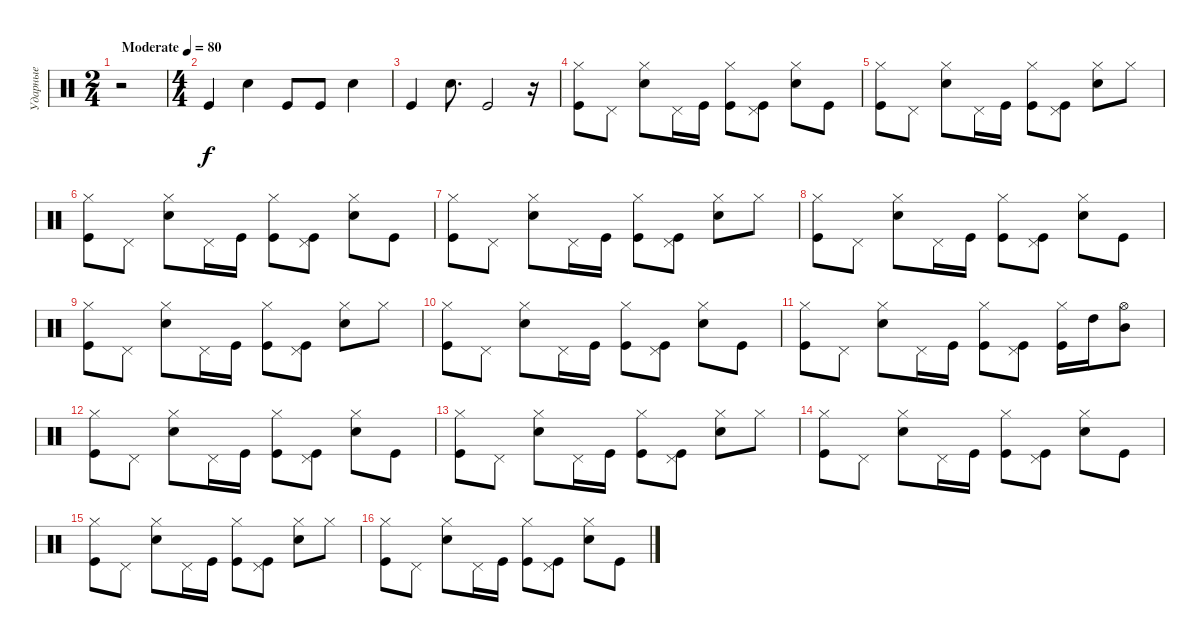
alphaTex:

\track ("Ударные" "Ударные") {instrument percussion}
\staff {score}
\articulation defaults
\ts (2 4)
\tempo (80 "Moderate")
\clef neutral
\ks c
r.2{dy f} |
\ts (4 4)
"Kick (hit)".4 "Snare (hit) 2".4 "Kick (hit)".8 "Kick (hit)".8 "Snare (hit) 2".4 |
"Kick (hit)".4 "Snare (hit) 2".8{d} "Kick (hit)".2 r.16 |
("Kick (hit)" "Hi-Hat (closed)").8 "Pedal Hi-Hat (hit)".8 ("Snare (hit) 2" "Hi-Hat (closed)").8 "Pedal Hi-Hat (hit)".16 "Kick (hit)".16 ("Kick (hit)" "Hi-Hat (closed)").8 ("Kick (hit)" "Pedal Hi-Hat (hit)").8 ("Snare (hit) 2" "Hi-Hat (closed)").8 "Kick (hit)".8 |
("Kick (hit)" "Hi-Hat (closed)").8 "Pedal Hi-Hat (hit)".8 ("Snare (hit) 2" "Hi-Hat (closed)").8 "Pedal Hi-Hat (hit)".16 "Kick (hit)".16 ("Kick (hit)" "Hi-Hat (closed)").8 ("Kick (hit)" "Pedal Hi-Hat (hit)").8 ("Snare (hit) 2" "Hi-Hat (closed)").8 "Hi-Hat (closed)".8 |
("Kick (hit)" "Hi-Hat (closed)").8 "Pedal Hi-Hat (hit)".8 ("Snare (hit) 2" "Hi-Hat (closed)").8 "Pedal Hi-Hat (hit)".16 "Kick (hit)".16 ("Kick (hit)" "Hi-Hat (closed)").8 ("Kick (hit)" "Pedal Hi-Hat (hit)").8 ("Snare (hit) 2" "Hi-Hat (closed)").8 "Kick (hit)".8 |
("Kick (hit)" "Hi-Hat (closed)").8 "Pedal Hi-Hat (hit)".8 ("Snare (hit) 2" "Hi-Hat (closed)").8 "Pedal Hi-Hat (hit)".16 "Kick (hit)".16 ("Kick (hit)" "Hi-Hat (closed)").8 ("Kick (hit)" "Pedal Hi-Hat (hit)").8 ("Snare (hit) 2" "Hi-Hat (closed)").8 "Hi-Hat (closed)".8 |
("Kick (hit)" "Hi-Hat (closed)").8 "Pedal Hi-Hat (hit)".8 ("Snare (hit) 2" "Hi-Hat (closed)").8 "Pedal Hi-Hat (hit)".16 "Kick (hit)".16 ("Kick (hit)" "Hi-Hat (closed)").8 ("Kick (hit)" "Pedal Hi-Hat (hit)").8 ("Snare (hit) 2" "Hi-Hat (closed)").8 "Kick (hit)".8 |
("Kick (hit)" "Hi-Hat (closed)").8 "Pedal Hi-Hat (hit)".8 ("Snare (hit) 2" "Hi-Hat (closed)").8 "Pedal Hi-Hat (hit)".16 "Kick (hit)".16 ("Kick (hit)" "Hi-Hat (closed)").8 ("Kick (hit)" "Pedal Hi-Hat (hit)").8 ("Snare (hit) 2" "Hi-Hat (closed)").8 "Hi-Hat (closed)".8 |
("Kick (hit)" "Hi-Hat (closed)").8 "Pedal Hi-Hat (hit)".8 ("Snare (hit) 2" "Hi-Hat (closed)").8 "Pedal Hi-Hat (hit)".16 "Kick (hit)".16 ("Kick (hit)" "Hi-Hat (closed)").8 ("Kick (hit)" "Pedal Hi-Hat (hit)").8 ("Snare (hit) 2" "Hi-Hat (closed)").8 "Kick (hit)".8 |
("Kick (hit)" "Hi-Hat (closed)").8 "Pedal Hi-Hat (hit)".8 ("Snare (hit) 2" "Hi-Hat (closed)").8 "Pedal Hi-Hat (hit)".16 "Kick (hit)".16 ("Kick (hit)" "Hi-Hat (closed)").8 ("Kick (hit)" "Pedal Hi-Hat (hit)").8 ("Kick (hit)" "Hi-Hat (closed)").16 "High Tom (hit)".16 ("Mid Tom (hit)" "Hi-Hat (open)").8 |
("Kick (hit)" "Hi-Hat (closed)").8 "Pedal Hi-Hat (hit)".8 ("Snare (hit) 2" "Hi-Hat (closed)").8 "Pedal Hi-Hat (hit)".16 "Kick (hit)".16 ("Kick (hit)" "Hi-Hat (closed)").8 ("Kick (hit)" "Pedal Hi-Hat (hit)").8 ("Snare (hit) 2" "Hi-Hat (closed)").8 "Kick (hit)".8 |
("Kick (hit)" "Hi-Hat (closed)").8 "Pedal Hi-Hat (hit)".8 ("Snare (hit) 2" "Hi-Hat (closed)").8 "Pedal Hi-Hat (hit)".16 "Kick (hit)".16 ("Kick (hit)" "Hi-Hat (closed)").8 ("Kick (hit)" "Pedal Hi-Hat (hit)").8 ("Snare (hit) 2" "Hi-Hat (closed)").8 "Hi-Hat (closed)".8 |
("Kick (hit)" "Hi-Hat (closed)").8 "Pedal Hi-Hat (hit)".8 ("Snare (hit) 2" "Hi-Hat (closed)").8 "Pedal Hi-Hat (hit)".16 "Kick (hit)".16 ("Kick (hit)" "Hi-Hat (closed)").8 ("Kick (hit)" "Pedal Hi-Hat (hit)").8 ("Snare (hit) 2" "Hi-Hat (closed)").8 "Kick (hit)".8 |
("Kick (hit)" "Hi-Hat (closed)").8 "Pedal Hi-Hat (hit)".8 ("Snare (hit) 2" "Hi-Hat (closed)").8 "Pedal Hi-Hat (hit)".16 "Kick (hit)".16 ("Kick (hit)" "Hi-Hat (closed)").8 ("Kick (hit)" "Pedal Hi-Hat (hit)").8 ("Snare (hit) 2" "Hi-Hat (closed)").8 "Hi-Hat (closed)".8 |
("Kick (hit)" "Hi-Hat (closed)").8 "Pedal Hi-Hat (hit)".8 ("Snare (hit) 2" "Hi-Hat (closed)").8 "Pedal Hi-Hat (hit)".16 "Kick (hit)".16 ("Kick (hit)" "Hi-Hat (closed)").8 ("Kick (hit)" "Pedal Hi-Hat (hit)").8 ("Snare (hit) 2" "Hi-Hat (closed)").8 "Kick (hit)".8
